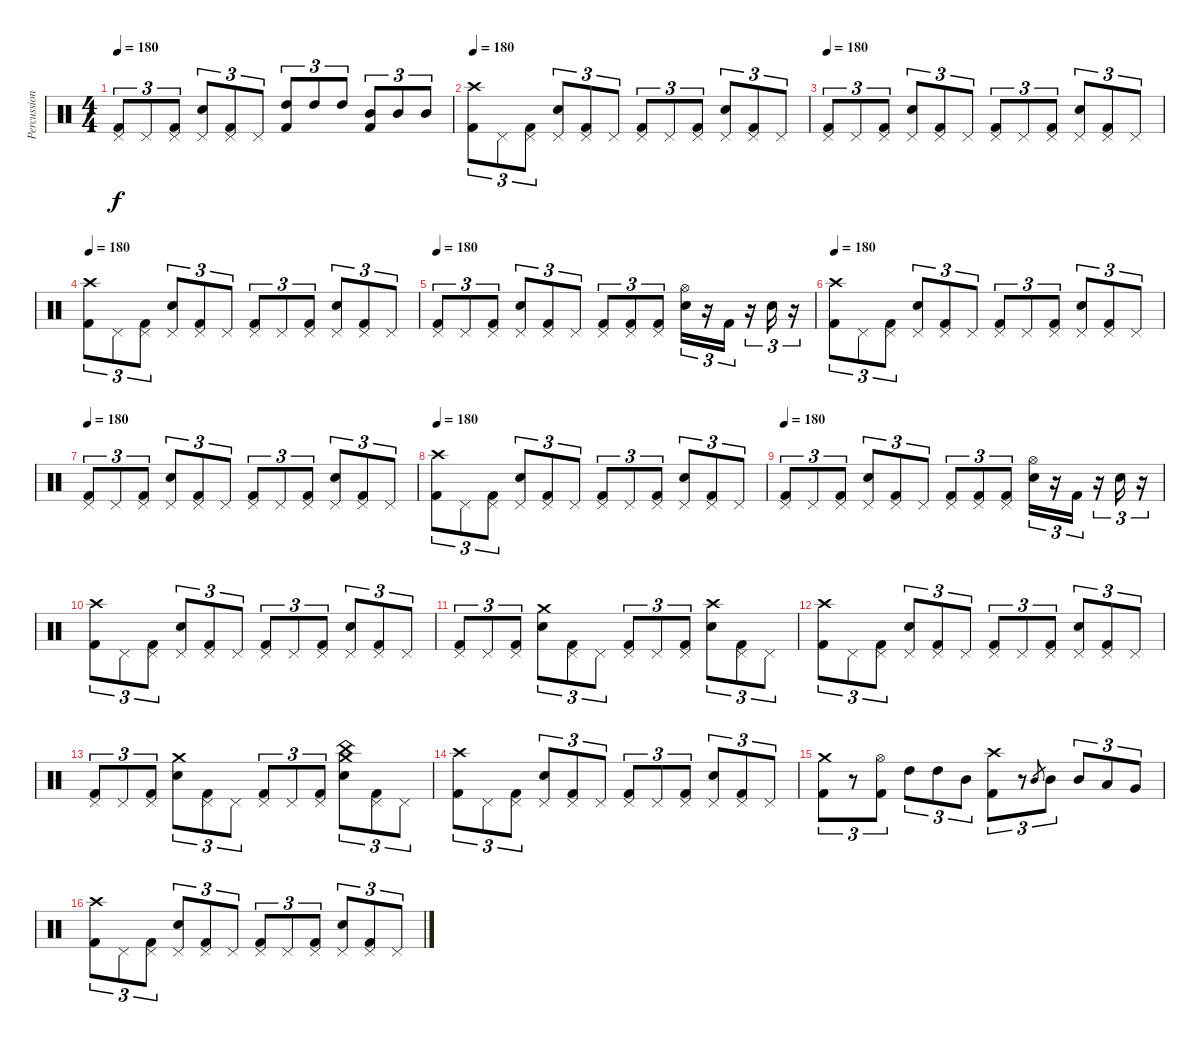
\track ("Percussion" "Percussion") {instrument percussion}
\staff {score}
\articulation defaults
\ts (4 4)
\tempo 180
\clef neutral
\ks c
("Pedal Hi-Hat (hit)" "Kick (hit) 2").8{tu (3 2) dy f} "Pedal Hi-Hat (hit)".8{tu (3 2)} ("Pedal Hi-Hat (hit)" "Kick (hit) 2").8{tu (3 2)} ("Pedal Hi-Hat (hit)" "Snare (hit) 2").8{tu (3 2)} ("Pedal Hi-Hat (hit)" "Kick (hit) 2").8{tu (3 2)} "Pedal Hi-Hat (hit)".8{tu (3 2)} ("High Tom (hit)" "Kick (hit) 2").8{tu (3 2)} "High Tom (hit)".8{tu (3 2)} "High Tom (hit)".8{tu (3 2)} ("Mid Tom (hit)" "Kick (hit) 2").8{tu (3 2)} "Mid Tom (hit)".8{tu (3 2)} "Mid Tom (hit)".8{tu (3 2)} |
\tempo 180
("Crash high (hit)" "Kick (hit) 2").8{tu (3 2)} "Pedal Hi-Hat (hit)".8{tu (3 2)} ("Pedal Hi-Hat (hit)" "Kick (hit) 2").8{tu (3 2)} ("Pedal Hi-Hat (hit)" "Snare (hit) 2").8{tu (3 2)} ("Pedal Hi-Hat (hit)" "Kick (hit) 2").8{tu (3 2)} "Pedal Hi-Hat (hit)".8{tu (3 2)} ("Pedal Hi-Hat (hit)" "Kick (hit) 2").8{tu (3 2)} "Pedal Hi-Hat (hit)".8{tu (3 2)} ("Pedal Hi-Hat (hit)" "Kick (hit) 2").8{tu (3 2)} ("Pedal Hi-Hat (hit)" "Snare (hit) 2").8{tu (3 2)} ("Pedal Hi-Hat (hit)" "Kick (hit) 2").8{tu (3 2)} "Pedal Hi-Hat (hit)".8{tu (3 2)} |
\tempo 180
("Pedal Hi-Hat (hit)" "Kick (hit) 2").8{tu (3 2)} "Pedal Hi-Hat (hit)".8{tu (3 2)} ("Pedal Hi-Hat (hit)" "Kick (hit) 2").8{tu (3 2)} ("Pedal Hi-Hat (hit)" "Snare (hit) 2").8{tu (3 2)} ("Pedal Hi-Hat (hit)" "Kick (hit) 2").8{tu (3 2)} "Pedal Hi-Hat (hit)".8{tu (3 2)} ("Pedal Hi-Hat (hit)" "Kick (hit) 2").8{tu (3 2)} "Pedal Hi-Hat (hit)".8{tu (3 2)} ("Pedal Hi-Hat (hit)" "Kick (hit) 2").8{tu (3 2)} ("Pedal Hi-Hat (hit)" "Snare (hit) 2").8{tu (3 2)} ("Pedal Hi-Hat (hit)" "Kick (hit) 2").8{tu (3 2)} "Pedal Hi-Hat (hit)".8{tu (3 2)} |
\tempo 180
("Crash high (hit)" "Kick (hit) 2").8{tu (3 2)} "Pedal Hi-Hat (hit)".8{tu (3 2)} ("Pedal Hi-Hat (hit)" "Kick (hit) 2").8{tu (3 2)} ("Pedal Hi-Hat (hit)" "Snare (hit) 2").8{tu (3 2)} ("Pedal Hi-Hat (hit)" "Kick (hit) 2").8{tu (3 2)} "Pedal Hi-Hat (hit)".8{tu (3 2)} ("Pedal Hi-Hat (hit)" "Kick (hit) 2").8{tu (3 2)} "Pedal Hi-Hat (hit)".8{tu (3 2)} ("Pedal Hi-Hat (hit)" "Kick (hit) 2").8{tu (3 2)} ("Pedal Hi-Hat (hit)" "Snare (hit) 2").8{tu (3 2)} ("Pedal Hi-Hat (hit)" "Kick (hit) 2").8{tu (3 2)} "Pedal Hi-Hat (hit)".8{tu (3 2)} |
\tempo 180
("Pedal Hi-Hat (hit)" "Kick (hit) 2").8{tu (3 2)} "Pedal Hi-Hat (hit)".8{tu (3 2)} ("Pedal Hi-Hat (hit)" "Kick (hit) 2").8{tu (3 2)} ("Pedal Hi-Hat (hit)" "Snare (hit) 2").8{tu (3 2)} ("Pedal Hi-Hat (hit)" "Kick (hit) 2").8{tu (3 2)} "Pedal Hi-Hat (hit)".8{tu (3 2)} ("Pedal Hi-Hat (hit)" "Kick (hit) 2").8{tu (3 2)} ("Pedal Hi-Hat (hit)" "Kick (hit) 2").8{tu (3 2)} ("Pedal Hi-Hat (hit)" "Kick (hit) 2").8{tu (3 2)} ("Hi-Hat (open)" "Snare (hit) 2").16{tu (3 2)} r.16{tu (3 2)} "Kick (hit) 2".16{tu (3 2)} r.16{tu (3 2)} "Snare (hit) 2".16{tu (3 2)} r.16{tu (3 2)} |
\tempo 180
("Crash high (hit)" "Kick (hit) 2").8{tu (3 2)} "Pedal Hi-Hat (hit)".8{tu (3 2)} ("Pedal Hi-Hat (hit)" "Kick (hit) 2").8{tu (3 2)} ("Pedal Hi-Hat (hit)" "Snare (hit) 2").8{tu (3 2)} ("Pedal Hi-Hat (hit)" "Kick (hit) 2").8{tu (3 2)} "Pedal Hi-Hat (hit)".8{tu (3 2)} ("Pedal Hi-Hat (hit)" "Kick (hit) 2").8{tu (3 2)} "Pedal Hi-Hat (hit)".8{tu (3 2)} ("Pedal Hi-Hat (hit)" "Kick (hit) 2").8{tu (3 2)} ("Pedal Hi-Hat (hit)" "Snare (hit) 2").8{tu (3 2)} ("Pedal Hi-Hat (hit)" "Kick (hit) 2").8{tu (3 2)} "Pedal Hi-Hat (hit)".8{tu (3 2)} |
\tempo 180
("Pedal Hi-Hat (hit)" "Kick (hit) 2").8{tu (3 2)} "Pedal Hi-Hat (hit)".8{tu (3 2)} ("Pedal Hi-Hat (hit)" "Kick (hit) 2").8{tu (3 2)} ("Pedal Hi-Hat (hit)" "Snare (hit) 2").8{tu (3 2)} ("Pedal Hi-Hat (hit)" "Kick (hit) 2").8{tu (3 2)} "Pedal Hi-Hat (hit)".8{tu (3 2)} ("Pedal Hi-Hat (hit)" "Kick (hit) 2").8{tu (3 2)} "Pedal Hi-Hat (hit)".8{tu (3 2)} ("Pedal Hi-Hat (hit)" "Kick (hit) 2").8{tu (3 2)} ("Pedal Hi-Hat (hit)" "Snare (hit) 2").8{tu (3 2)} ("Pedal Hi-Hat (hit)" "Kick (hit) 2").8{tu (3 2)} "Pedal Hi-Hat (hit)".8{tu (3 2)} |
\tempo 180
("Crash high (hit)" "Kick (hit) 2").8{tu (3 2)} "Pedal Hi-Hat (hit)".8{tu (3 2)} ("Pedal Hi-Hat (hit)" "Kick (hit) 2").8{tu (3 2)} ("Pedal Hi-Hat (hit)" "Snare (hit) 2").8{tu (3 2)} ("Pedal Hi-Hat (hit)" "Kick (hit) 2").8{tu (3 2)} "Pedal Hi-Hat (hit)".8{tu (3 2)} ("Pedal Hi-Hat (hit)" "Kick (hit) 2").8{tu (3 2)} "Pedal Hi-Hat (hit)".8{tu (3 2)} ("Pedal Hi-Hat (hit)" "Kick (hit) 2").8{tu (3 2)} ("Pedal Hi-Hat (hit)" "Snare (hit) 2").8{tu (3 2)} ("Pedal Hi-Hat (hit)" "Kick (hit) 2").8{tu (3 2)} "Pedal Hi-Hat (hit)".8{tu (3 2)} |
\tempo 180
("Pedal Hi-Hat (hit)" "Kick (hit) 2").8{tu (3 2)} "Pedal Hi-Hat (hit)".8{tu (3 2)} ("Pedal Hi-Hat (hit)" "Kick (hit) 2").8{tu (3 2)} ("Pedal Hi-Hat (hit)" "Snare (hit) 2").8{tu (3 2)} ("Pedal Hi-Hat (hit)" "Kick (hit) 2").8{tu (3 2)} "Pedal Hi-Hat (hit)".8{tu (3 2)} ("Pedal Hi-Hat (hit)" "Kick (hit) 2").8{tu (3 2)} ("Pedal Hi-Hat (hit)" "Kick (hit) 2").8{tu (3 2)} ("Pedal Hi-Hat (hit)" "Kick (hit) 2").8{tu (3 2)} ("Hi-Hat (open)" "Snare (hit) 2").16{tu (3 2)} r.16{tu (3 2)} "Kick (hit) 2".16{tu (3 2)} r.16{tu (3 2)} "Snare (hit) 2".16{tu (3 2)} r.16{tu (3 2)} |
("Crash high (hit)" "Kick (hit) 2").8{tu (3 2)} "Pedal Hi-Hat (hit)".8{tu (3 2)} ("Pedal Hi-Hat (hit)" "Kick (hit) 2").8{tu (3 2)} ("Pedal Hi-Hat (hit)" "Snare (hit) 2").8{tu (3 2)} ("Pedal Hi-Hat (hit)" "Kick (hit) 2").8{tu (3 2)} "Pedal Hi-Hat (hit)".8{tu (3 2)} ("Pedal Hi-Hat (hit)" "Kick (hit) 2").8{tu (3 2)} "Pedal Hi-Hat (hit)".8{tu (3 2)} ("Pedal Hi-Hat (hit)" "Kick (hit) 2").8{tu (3 2)} ("Pedal Hi-Hat (hit)" "Snare (hit) 2").8{tu (3 2)} ("Pedal Hi-Hat (hit)" "Kick (hit) 2").8{tu (3 2)} "Pedal Hi-Hat (hit)".8{tu (3 2)} |
("Pedal Hi-Hat (hit)" "Kick (hit) 2").8{tu (3 2)} "Pedal Hi-Hat (hit)".8{tu (3 2)} ("Pedal Hi-Hat (hit)" "Kick (hit) 2").8{tu (3 2)} ("Crash medium (hit)" "Snare (hit) 2").8{tu (3 2)} ("Pedal Hi-Hat (hit)" "Kick (hit) 2").8{tu (3 2)} "Pedal Hi-Hat (hit)".8{tu (3 2)} ("Pedal Hi-Hat (hit)" "Kick (hit) 2").8{tu (3 2)} "Pedal Hi-Hat (hit)".8{tu (3 2)} ("Pedal Hi-Hat (hit)" "Kick (hit) 2").8{tu (3 2)} ("Crash high (hit)" "Snare (hit) 2").8{tu (3 2)} ("Pedal Hi-Hat (hit)" "Kick (hit) 2").8{tu (3 2)} "Pedal Hi-Hat (hit)".8{tu (3 2)} |
("Crash high (hit)" "Kick (hit) 2").8{tu (3 2)} "Pedal Hi-Hat (hit)".8{tu (3 2)} ("Pedal Hi-Hat (hit)" "Kick (hit) 2").8{tu (3 2)} ("Pedal Hi-Hat (hit)" "Snare (hit) 2").8{tu (3 2)} ("Pedal Hi-Hat (hit)" "Kick (hit) 2").8{tu (3 2)} "Pedal Hi-Hat (hit)".8{tu (3 2)} ("Pedal Hi-Hat (hit)" "Kick (hit) 2").8{tu (3 2)} "Pedal Hi-Hat (hit)".8{tu (3 2)} ("Pedal Hi-Hat (hit)" "Kick (hit) 2").8{tu (3 2)} ("Pedal Hi-Hat (hit)" "Snare (hit) 2").8{tu (3 2)} ("Pedal Hi-Hat (hit)" "Kick (hit) 2").8{tu (3 2)} "Pedal Hi-Hat (hit)".8{tu (3 2)} |
("Pedal Hi-Hat (hit)" "Kick (hit) 2").8{tu (3 2)} "Pedal Hi-Hat (hit)".8{tu (3 2)} ("Pedal Hi-Hat (hit)" "Kick (hit) 2").8{tu (3 2)} ("Crash medium (hit)" "Snare (hit) 2").8{tu (3 2)} ("Pedal Hi-Hat (hit)" "Kick (hit) 2").8{tu (3 2)} "Pedal Hi-Hat (hit)".8{tu (3 2)} ("Pedal Hi-Hat (hit)" "Kick (hit) 2").8{tu (3 2)} "Pedal Hi-Hat (hit)".8{tu (3 2)} ("Pedal Hi-Hat (hit)" "Kick (hit) 2").8{tu (3 2)} ("Crash medium (hit)" "China (hit)" "Snare (hit) 2").8{tu (3 2)} ("Pedal Hi-Hat (hit)" "Kick (hit) 2").8{tu (3 2)} "Pedal Hi-Hat (hit)".8{tu (3 2)} |
("Crash high (hit)" "Kick (hit) 2").8{tu (3 2)} "Pedal Hi-Hat (hit)".8{tu (3 2)} ("Pedal Hi-Hat (hit)" "Kick (hit) 2").8{tu (3 2)} ("Pedal Hi-Hat (hit)" "Snare (hit) 2").8{tu (3 2)} ("Pedal Hi-Hat (hit)" "Kick (hit) 2").8{tu (3 2)} "Pedal Hi-Hat (hit)".8{tu (3 2)} ("Pedal Hi-Hat (hit)" "Kick (hit) 2").8{tu (3 2)} "Pedal Hi-Hat (hit)".8{tu (3 2)} ("Pedal Hi-Hat (hit)" "Kick (hit) 2").8{tu (3 2)} ("Pedal Hi-Hat (hit)" "Snare (hit) 2").8{tu (3 2)} ("Pedal Hi-Hat (hit)" "Kick (hit) 2").8{tu (3 2)} "Pedal Hi-Hat (hit)".8{tu (3 2)} |
("Crash medium (hit)" "Kick (hit) 2").8{tu (3 2)} r.8{tu (3 2)} ("Hi-Hat (open)" "Kick (hit) 2").8{tu (3 2)} "High Tom (hit)".8{tu (3 2)} "High Tom (hit)".8{tu (3 2)} "Mid Tom (hit)".8{tu (3 2)} ("Crash high (hit)" "Kick (hit) 2").8{tu (3 2)} r.8{tu (3 2)} "Mid Tom (hit)".8{gr} "Mid Tom (hit)".8{tu (3 2)} "Mid Tom (hit)".8{tu (3 2)} "Low Tom (hit)".8{tu (3 2)} "Very Low Tom (hit)".8{tu (3 2)} |
("Crash high (hit)" "Kick (hit) 2").8{tu (3 2)} "Pedal Hi-Hat (hit)".8{tu (3 2)} ("Pedal Hi-Hat (hit)" "Kick (hit) 2").8{tu (3 2)} ("Pedal Hi-Hat (hit)" "Snare (hit) 2").8{tu (3 2)} ("Pedal Hi-Hat (hit)" "Kick (hit) 2").8{tu (3 2)} "Pedal Hi-Hat (hit)".8{tu (3 2)} ("Pedal Hi-Hat (hit)" "Kick (hit) 2").8{tu (3 2)} "Pedal Hi-Hat (hit)".8{tu (3 2)} ("Pedal Hi-Hat (hit)" "Kick (hit) 2").8{tu (3 2)} ("Pedal Hi-Hat (hit)" "Snare (hit) 2").8{tu (3 2)} ("Pedal Hi-Hat (hit)" "Kick (hit) 2").8{tu (3 2)} "Pedal Hi-Hat (hit)".8{tu (3 2)}
